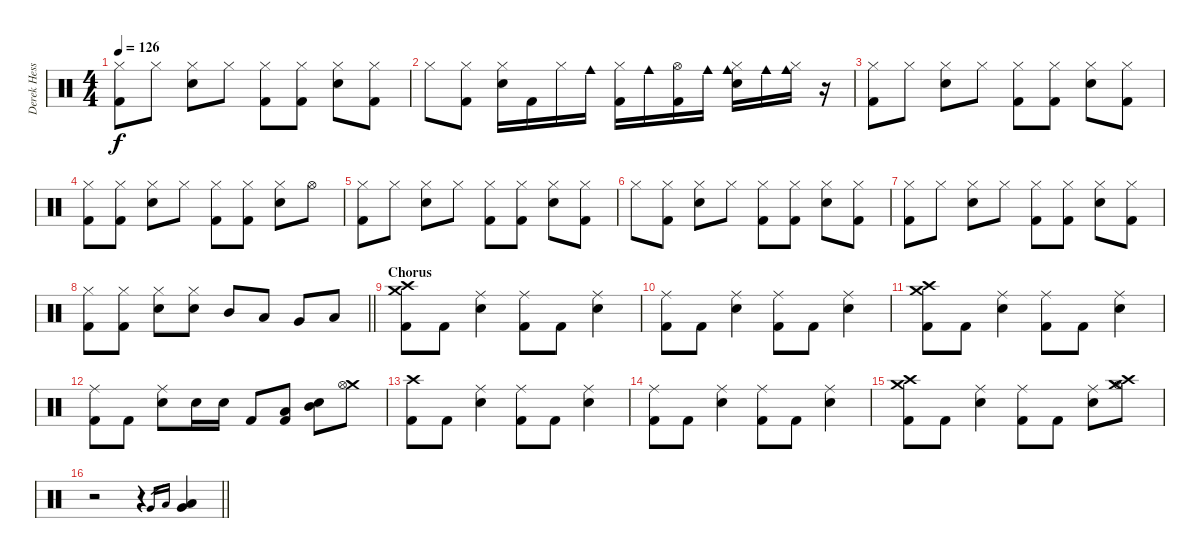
\track ("Derek Hess (Drums and Percussion)" "Derek Hess") {instrument percussion}
\staff {score}
\articulation defaults
\ts (4 4)
\tempo 126
\clef neutral
\ks c
("Hi-Hat (closed)" "Kick (hit) 2").8{dy f} "Hi-Hat (closed)".8 ("Electric Snare (hit)" "Hi-Hat (closed)").8 "Hi-Hat (closed)".8 ("Hi-Hat (closed)" "Kick (hit) 2").8 ("Hi-Hat (closed)" "Kick (hit) 2").8 ("Electric Snare (hit)" "Hi-Hat (closed)").8 ("Hi-Hat (closed)" "Kick (hit) 2").8 |
"Hi-Hat (closed)".8 ("Hi-Hat (closed)" "Kick (hit) 2").8 ("Electric Snare (hit)" "Hi-Hat (closed)").16 "Kick (hit) 2".16 "Hi-Hat (closed)".16 "Cowbell medium (hit)".16 ("Hi-Hat (closed)" "Kick (hit) 2").16 "Cowbell medium (hit)".16 ("Hi-Hat (open)" "Kick (hit) 2").16 "Cowbell medium (hit)".16 ("Electric Snare (hit)" "Hi-Hat (closed)" "Cowbell medium (hit)").16 "Cowbell medium (hit)".16 ("Hi-Hat (closed)" "Cowbell medium (hit)").16 r.16 |
("Hi-Hat (closed)" "Kick (hit) 2").8 "Hi-Hat (closed)".8 ("Electric Snare (hit)" "Hi-Hat (closed)").8 "Hi-Hat (closed)".8 ("Hi-Hat (closed)" "Kick (hit) 2").8 ("Hi-Hat (closed)" "Kick (hit) 2").8 ("Electric Snare (hit)" "Hi-Hat (closed)").8 ("Hi-Hat (closed)" "Kick (hit) 2").8 |
("Hi-Hat (closed)" "Kick (hit) 2").8 ("Hi-Hat (closed)" "Kick (hit) 2").8 ("Electric Snare (hit)" "Hi-Hat (closed)").8 "Hi-Hat (closed)".8 ("Hi-Hat (closed)" "Kick (hit) 2").8 ("Hi-Hat (closed)" "Kick (hit) 2").8 ("Electric Snare (hit)" "Hi-Hat (closed)").8 "Hi-Hat (open)".8 |
("Hi-Hat (closed)" "Kick (hit) 2").8 "Hi-Hat (closed)".8 ("Electric Snare (hit)" "Hi-Hat (closed)").8 "Hi-Hat (closed)".8 ("Hi-Hat (closed)" "Kick (hit) 2").8 ("Hi-Hat (closed)" "Kick (hit) 2").8 ("Electric Snare (hit)" "Hi-Hat (closed)").8 ("Hi-Hat (closed)" "Kick (hit) 2").8 |
"Hi-Hat (closed)".8 ("Hi-Hat (closed)" "Kick (hit) 2").8 ("Electric Snare (hit)" "Hi-Hat (closed)").8 "Hi-Hat (closed)".8 ("Hi-Hat (closed)" "Kick (hit) 2").8 ("Hi-Hat (closed)" "Kick (hit) 2").8 ("Electric Snare (hit)" "Hi-Hat (closed)").8 ("Hi-Hat (closed)" "Kick (hit) 2").8 |
("Hi-Hat (closed)" "Kick (hit) 2").8 "Hi-Hat (closed)".8 ("Electric Snare (hit)" "Hi-Hat (closed)").8 "Hi-Hat (closed)".8 ("Hi-Hat (closed)" "Kick (hit) 2").8 ("Hi-Hat (closed)" "Kick (hit) 2").8 ("Electric Snare (hit)" "Hi-Hat (closed)").8 ("Hi-Hat (closed)" "Kick (hit) 2").8 |
\barLineRight lightlight
("Hi-Hat (closed)" "Kick (hit) 2").8 ("Hi-Hat (closed)" "Kick (hit) 2").8 ("Electric Snare (hit)" "Hi-Hat (closed)").8 ("Electric Snare (hit)" "Hi-Hat (closed)").8 "Mid Tom (hit)".8 "Low Tom (hit)".8 "Very Low Tom (hit)".8 "Low Floor Tom (hit)".8 |
\section ("" "Chorus")
("Crash high (hit)" "Crash medium (hit)" "Kick (hit) 2").8 "Kick (hit) 2".8 ("Ride (middle)" "Snare (hit) 2").4 ("Ride (middle)" "Kick (hit) 2").8 "Kick (hit) 2".8 ("Ride (middle)" "Snare (hit) 2").4 |
("Ride (middle)" "Kick (hit) 2").8 "Kick (hit) 2".8 ("Ride (middle)" "Snare (hit) 2").4 ("Ride (middle)" "Kick (hit) 2").8 "Kick (hit) 2".8 ("Ride (middle)" "Snare (hit) 2").4 |
("Crash high (hit)" "Crash medium (hit)" "Kick (hit) 2").8 "Kick (hit) 2".8 ("Ride (middle)" "Snare (hit) 2").4 ("Ride (middle)" "Kick (hit) 2").8 "Kick (hit) 2".8 ("Ride (middle)" "Snare (hit) 2").4 |
("Ride (middle)" "Kick (hit) 2").8 "Kick (hit) 2".8 ("Ride (middle)" "Snare (hit) 2").8 "Electric Snare (hit)".16 "Electric Snare (hit)".16 "Kick (hit) 2".8 ("Low Tom (hit)" "Kick (hit) 2").8 ("Electric Snare (hit)" "Mid Tom (hit)").8 ("Crash medium (hit)" "Hi-Hat (open)").8 |
("Crash high (hit)" "Kick (hit) 2").8 "Kick (hit) 2".8 ("Ride (middle)" "Snare (hit) 2").4 ("Ride (middle)" "Kick (hit) 2").8 "Kick (hit) 2".8 ("Ride (middle)" "Snare (hit) 2").4 |
("Ride (middle)" "Kick (hit) 2").8 "Kick (hit) 2".8 ("Ride (middle)" "Snare (hit) 2").4 ("Ride (middle)" "Kick (hit) 2").8 "Kick (hit) 2".8 ("Ride (middle)" "Snare (hit) 2").4 |
("Crash high (hit)" "Crash medium (hit)" "Kick (hit) 2").8 "Kick (hit) 2".8 ("Ride (middle)" "Snare (hit) 2").4 ("Ride (middle)" "Kick (hit) 2").8 "Kick (hit) 2".8 ("Ride (middle)" "Snare (hit) 2").8 ("Crash medium (hit)" "Crash high (hit)" "Hi-Hat (open)").8 |
\barLineRight lightlight
r.2 r.4 "Very Low Tom (hit)".16{gr} "Low Floor Tom (hit)".16{gr} ("Very Low Tom (hit)" "Low Floor Tom (hit)").4
